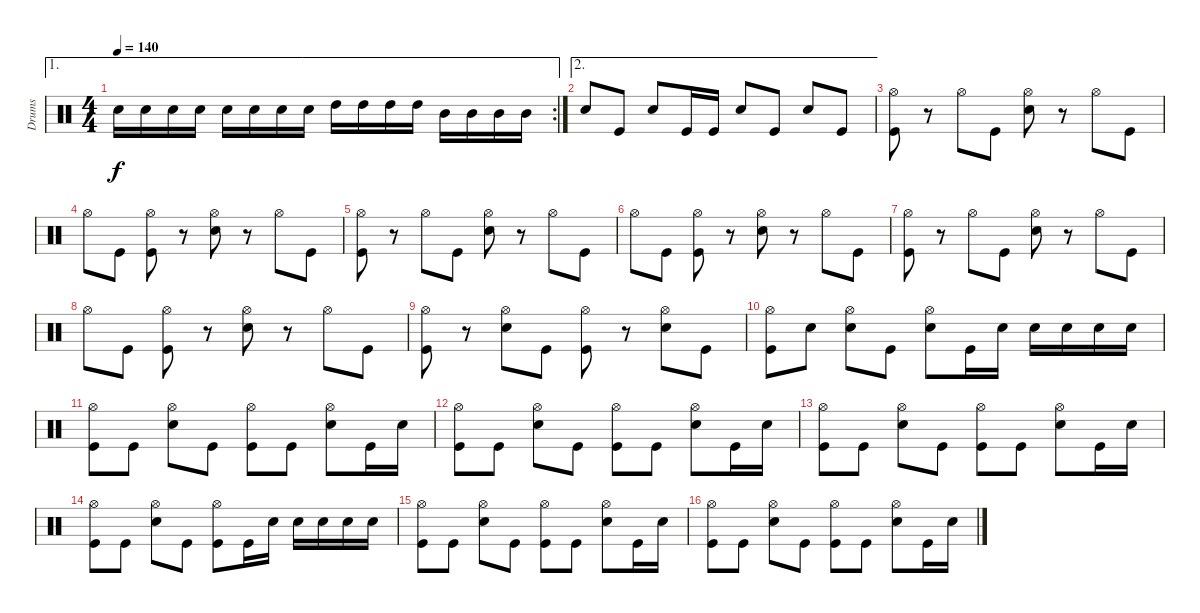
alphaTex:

\track ("Drums" "Drums") {instrument percussion}
\staff {score}
\articulation defaults
\ae 1
\rc 2
\ts (4 4)
\tempo 140
\clef neutral
\ks c "Snare (hit) 2".16{dy f} "Snare (hit) 2".16 "Snare (hit) 2".16 "Snare (hit) 2".16 "Snare (hit) 2".16 "Snare (hit) 2".16 "Snare (hit) 2".16 "Snare (hit) 2".16 "High Tom (hit)".16 "High Tom (hit)".16 "High Tom (hit)".16 "High Tom (hit)".16 "Mid Tom (hit)".16 "Mid Tom (hit)".16 "Mid Tom (hit)".16 "Mid Tom (hit)".16
|
\ae 2 "Snare (hit) 2".8 "Kick (hit)".8 "Snare (hit) 2".8 "Kick (hit)".16 "Kick (hit)".16 "Snare (hit) 2".8 "Kick (hit)".8 "Snare (hit) 2".8 "Kick (hit)".8
|
("Hi-Hat (open)" "Kick (hit)").8 r.8 "Hi-Hat (open)".8 "Kick (hit)".8 ("Hi-Hat (open)" "Snare (hit) 2").8 r.8 "Hi-Hat (open)".8 "Kick (hit)".8 |
"Hi-Hat (open)".8 "Kick (hit)".8 ("Hi-Hat (open)" "Kick (hit)").8 r.8 ("Hi-Hat (open)" "Snare (hit) 2").8 r.8 "Hi-Hat (open)".8 "Kick (hit)".8 |
("Hi-Hat (open)" "Kick (hit)").8 r.8 "Hi-Hat (open)".8 "Kick (hit)".8 ("Hi-Hat (open)" "Snare (hit) 2").8 r.8 "Hi-Hat (open)".8 "Kick (hit)".8 |
"Hi-Hat (open)".8 "Kick (hit)".8 ("Hi-Hat (open)" "Kick (hit)").8 r.8 ("Hi-Hat (open)" "Snare (hit) 2").8 r.8 "Hi-Hat (open)".8 "Kick (hit)".8 |
("Hi-Hat (open)" "Kick (hit)").8 r.8 "Hi-Hat (open)".8 "Kick (hit)".8 ("Hi-Hat (open)" "Snare (hit) 2").8 r.8 "Hi-Hat (open)".8 "Kick (hit)".8 |
"Hi-Hat (open)".8 "Kick (hit)".8 ("Hi-Hat (open)" "Kick (hit)").8 r.8 ("Hi-Hat (open)" "Snare (hit) 2").8 r.8 "Hi-Hat (open)".8 "Kick (hit)".8 |
("Hi-Hat (open)" "Kick (hit)").8 r.8 ("Hi-Hat (open)" "Snare (hit) 2").8 "Kick (hit)".8 ("Hi-Hat (open)" "Kick (hit)").8 r.8 ("Hi-Hat (open)" "Snare (hit) 2").8 "Kick (hit)".8 |
("Hi-Hat (open)" "Kick (hit)").8 "Snare (hit) 2".8 ("Hi-Hat (open)" "Snare (hit) 2").8 "Kick (hit)".8 ("Hi-Hat (open)" "Snare (hit) 2").8 "Kick (hit)".16 "Snare (hit) 2".16 "Snare (hit) 2".16 "Snare (hit) 2".16 "Snare (hit) 2".16 "Snare (hit) 2".16 |
("Hi-Hat (open)" "Kick (hit)").8 "Kick (hit)".8 ("Hi-Hat (open)" "Snare (hit) 2").8 "Kick (hit)".8 ("Hi-Hat (open)" "Kick (hit)").8 "Kick (hit)".8 ("Hi-Hat (open)" "Snare (hit) 2").8 "Kick (hit)".16 "Snare (hit) 2".16 |
("Hi-Hat (open)" "Kick (hit)").8 "Kick (hit)".8 ("Hi-Hat (open)" "Snare (hit) 2").8 "Kick (hit)".8 ("Hi-Hat (open)" "Kick (hit)").8 "Kick (hit)".8 ("Hi-Hat (open)" "Snare (hit) 2").8 "Kick (hit)".16 "Snare (hit) 2".16 |
("Hi-Hat (open)" "Kick (hit)").8 "Kick (hit)".8 ("Hi-Hat (open)" "Snare (hit) 2").8 "Kick (hit)".8 ("Hi-Hat (open)" "Kick (hit)").8 "Kick (hit)".8 ("Hi-Hat (open)" "Snare (hit) 2").8 "Kick (hit)".16 "Snare (hit) 2".16 |
("Hi-Hat (open)" "Kick (hit)").8 "Kick (hit)".8 ("Hi-Hat (open)" "Snare (hit) 2").8 "Kick (hit)".8 ("Hi-Hat (open)" "Kick (hit)").8 "Kick (hit)".16 "Snare (hit) 2".16 "Snare (hit) 2".16 "Snare (hit) 2".16 "Snare (hit) 2".16 "Snare (hit) 2".16 |
("Hi-Hat (open)" "Kick (hit)").8 "Kick (hit)".8 ("Hi-Hat (open)" "Snare (hit) 2").8 "Kick (hit)".8 ("Hi-Hat (open)" "Kick (hit)").8 "Kick (hit)".8 ("Hi-Hat (open)" "Snare (hit) 2").8 "Kick (hit)".16 "Snare (hit) 2".16 |
("Hi-Hat (open)" "Kick (hit)").8 "Kick (hit)".8 ("Hi-Hat (open)" "Snare (hit) 2").8 "Kick (hit)".8 ("Hi-Hat (open)" "Kick (hit)").8 "Kick (hit)".8 ("Hi-Hat (open)" "Snare (hit) 2").8 "Kick (hit)".16 "Snare (hit) 2".16
